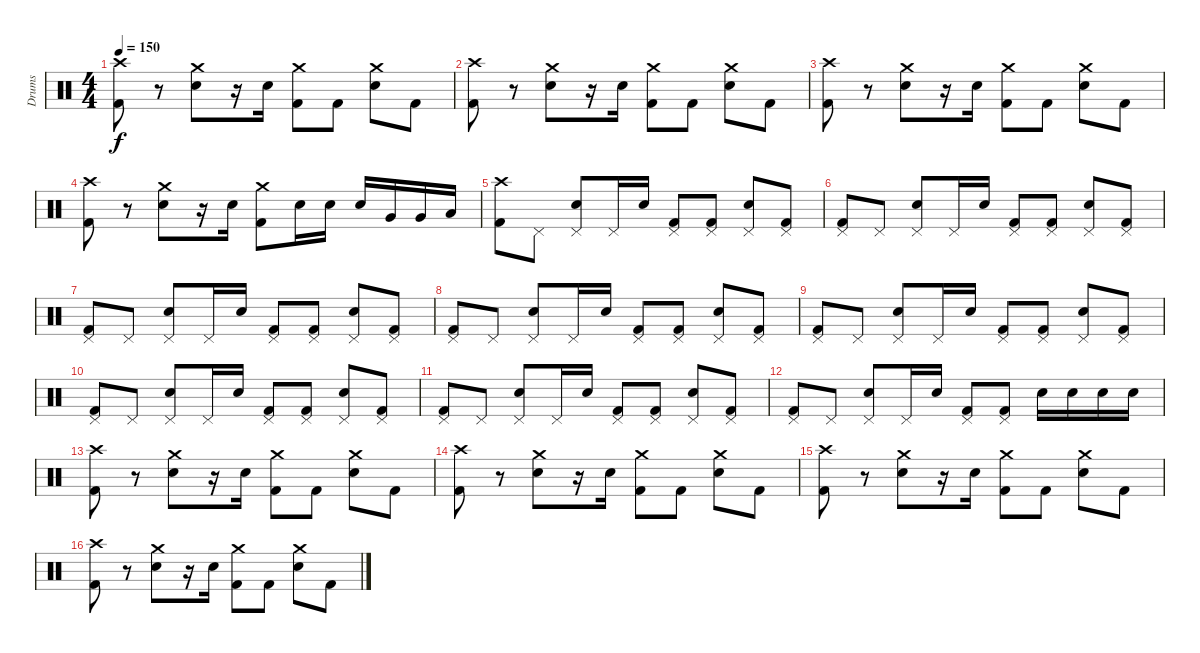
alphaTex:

\track ("Drums" "Drums") {instrument percussion}
\staff {score}
\articulation defaults
\ts (4 4)
\tempo 150
\clef neutral
\ks c
("Crash high (hit)" "Kick (hit) 2").8{dy f} r.8 ("Crash medium (hit)" "Electric Snare (hit)").8 r.16 "Electric Snare (hit)".16 ("Crash medium (hit)" "Kick (hit) 2").8 "Kick (hit) 2".8 ("Crash medium (hit)" "Electric Snare (hit)").8 "Kick (hit) 2".8 |
("Crash high (hit)" "Kick (hit) 2").8 r.8 ("Crash medium (hit)" "Electric Snare (hit)").8 r.16 "Electric Snare (hit)".16 ("Crash medium (hit)" "Kick (hit) 2").8 "Kick (hit) 2".8 ("Crash medium (hit)" "Electric Snare (hit)").8 "Kick (hit) 2".8 |
("Crash high (hit)" "Kick (hit) 2").8 r.8 ("Crash medium (hit)" "Electric Snare (hit)").8 r.16 "Electric Snare (hit)".16 ("Crash medium (hit)" "Kick (hit) 2").8 "Kick (hit) 2".8 ("Crash medium (hit)" "Electric Snare (hit)").8 "Kick (hit) 2".8 |
("Crash high (hit)" "Kick (hit) 2").8 r.8 ("Crash medium (hit)" "Electric Snare (hit)").8 r.16 "Electric Snare (hit)".16 ("Crash medium (hit)" "Kick (hit) 2").8 "Electric Snare (hit)".16 "Electric Snare (hit)".16 "Electric Snare (hit)".16 "Very Low Tom (hit)".16 "Very Low Tom (hit)".16 "Low Floor Tom (hit)".16 |
("Crash high (hit)" "Kick (hit) 2").8 "Pedal Hi-Hat (hit)".8 ("Pedal Hi-Hat (hit)" "Electric Snare (hit)").8 "Pedal Hi-Hat (hit)".16 "Electric Snare (hit)".16 ("Pedal Hi-Hat (hit)" "Kick (hit) 2").8 ("Pedal Hi-Hat (hit)" "Kick (hit) 2").8 ("Pedal Hi-Hat (hit)" "Electric Snare (hit)").8 ("Pedal Hi-Hat (hit)" "Kick (hit) 2").8 |
("Pedal Hi-Hat (hit)" "Kick (hit) 2").8 "Pedal Hi-Hat (hit)".8 ("Pedal Hi-Hat (hit)" "Electric Snare (hit)").8 "Pedal Hi-Hat (hit)".16 "Electric Snare (hit)".16 ("Pedal Hi-Hat (hit)" "Kick (hit) 2").8 ("Pedal Hi-Hat (hit)" "Kick (hit) 2").8 ("Pedal Hi-Hat (hit)" "Electric Snare (hit)").8 ("Pedal Hi-Hat (hit)" "Kick (hit) 2").8 |
("Pedal Hi-Hat (hit)" "Kick (hit) 2").8 "Pedal Hi-Hat (hit)".8 ("Pedal Hi-Hat (hit)" "Electric Snare (hit)").8 "Pedal Hi-Hat (hit)".16 "Electric Snare (hit)".16 ("Pedal Hi-Hat (hit)" "Kick (hit) 2").8 ("Pedal Hi-Hat (hit)" "Kick (hit) 2").8 ("Pedal Hi-Hat (hit)" "Electric Snare (hit)").8 ("Pedal Hi-Hat (hit)" "Kick (hit) 2").8 |
("Pedal Hi-Hat (hit)" "Kick (hit) 2").8 "Pedal Hi-Hat (hit)".8 ("Pedal Hi-Hat (hit)" "Electric Snare (hit)").8 "Pedal Hi-Hat (hit)".16 "Electric Snare (hit)".16 ("Pedal Hi-Hat (hit)" "Kick (hit) 2").8 ("Pedal Hi-Hat (hit)" "Kick (hit) 2").8 ("Pedal Hi-Hat (hit)" "Electric Snare (hit)").8 ("Pedal Hi-Hat (hit)" "Kick (hit) 2").8 |
("Pedal Hi-Hat (hit)" "Kick (hit) 2").8 "Pedal Hi-Hat (hit)".8 ("Pedal Hi-Hat (hit)" "Electric Snare (hit)").8 "Pedal Hi-Hat (hit)".16 "Electric Snare (hit)".16 ("Pedal Hi-Hat (hit)" "Kick (hit) 2").8 ("Pedal Hi-Hat (hit)" "Kick (hit) 2").8 ("Pedal Hi-Hat (hit)" "Electric Snare (hit)").8 ("Pedal Hi-Hat (hit)" "Kick (hit) 2").8 |
("Pedal Hi-Hat (hit)" "Kick (hit) 2").8 "Pedal Hi-Hat (hit)".8 ("Pedal Hi-Hat (hit)" "Electric Snare (hit)").8 "Pedal Hi-Hat (hit)".16 "Electric Snare (hit)".16 ("Pedal Hi-Hat (hit)" "Kick (hit) 2").8 ("Pedal Hi-Hat (hit)" "Kick (hit) 2").8 ("Pedal Hi-Hat (hit)" "Electric Snare (hit)").8 ("Pedal Hi-Hat (hit)" "Kick (hit) 2").8 |
("Pedal Hi-Hat (hit)" "Kick (hit) 2").8 "Pedal Hi-Hat (hit)".8 ("Pedal Hi-Hat (hit)" "Electric Snare (hit)").8 "Pedal Hi-Hat (hit)".16 "Electric Snare (hit)".16 ("Pedal Hi-Hat (hit)" "Kick (hit) 2").8 ("Pedal Hi-Hat (hit)" "Kick (hit) 2").8 ("Pedal Hi-Hat (hit)" "Electric Snare (hit)").8 ("Pedal Hi-Hat (hit)" "Kick (hit) 2").8 |
("Pedal Hi-Hat (hit)" "Kick (hit) 2").8 "Pedal Hi-Hat (hit)".8 ("Pedal Hi-Hat (hit)" "Electric Snare (hit)").8 "Pedal Hi-Hat (hit)".16 "Electric Snare (hit)".16 ("Pedal Hi-Hat (hit)" "Kick (hit) 2").8 ("Pedal Hi-Hat (hit)" "Kick (hit) 2").8 "Electric Snare (hit)".16 "Electric Snare (hit)".16 "Electric Snare (hit)".16 "Electric Snare (hit)".16 |
("Crash high (hit)" "Kick (hit) 2").8 r.8 ("Crash medium (hit)" "Electric Snare (hit)").8 r.16 "Electric Snare (hit)".16 ("Crash medium (hit)" "Kick (hit) 2").8 "Kick (hit) 2".8 ("Crash medium (hit)" "Electric Snare (hit)").8 "Kick (hit) 2".8 |
("Crash high (hit)" "Kick (hit) 2").8 r.8 ("Crash medium (hit)" "Electric Snare (hit)").8 r.16 "Electric Snare (hit)".16 ("Crash medium (hit)" "Kick (hit) 2").8 "Kick (hit) 2".8 ("Crash medium (hit)" "Electric Snare (hit)").8 "Kick (hit) 2".8 |
("Crash high (hit)" "Kick (hit) 2").8 r.8 ("Crash medium (hit)" "Electric Snare (hit)").8 r.16 "Electric Snare (hit)".16 ("Crash medium (hit)" "Kick (hit) 2").8 "Kick (hit) 2".8 ("Crash medium (hit)" "Electric Snare (hit)").8 "Kick (hit) 2".8 |
("Crash high (hit)" "Kick (hit) 2").8 r.8 ("Crash medium (hit)" "Electric Snare (hit)").8 r.16 "Electric Snare (hit)".16 ("Crash medium (hit)" "Kick (hit) 2").8 "Kick (hit) 2".8 ("Crash medium (hit)" "Electric Snare (hit)").8 "Kick (hit) 2".8
